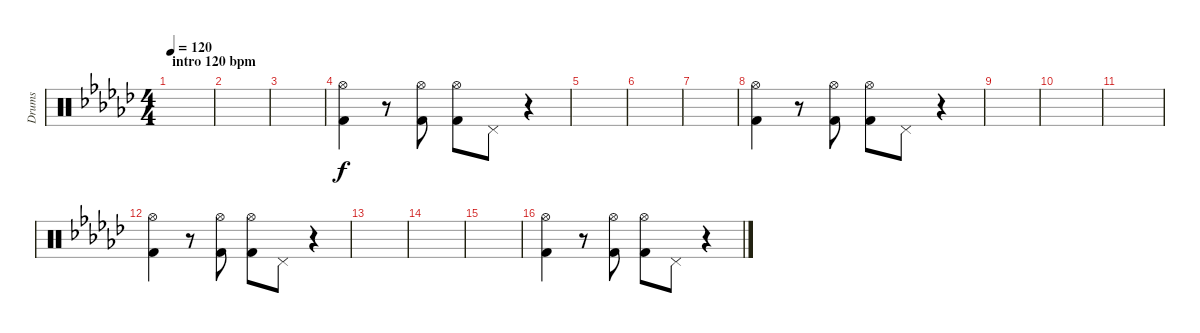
\track ("Drums" "Drums") {instrument percussion}
\staff {score}
\articulation defaults
\ts (4 4)
\section ("" "intro 120 bpm")
\tempo 120
\clef neutral
\ks ebminor
|
|
|
("Hi-Hat (open)" "Kick (hit) 2").4 r.8 ("Hi-Hat (open)" "Kick (hit) 2").8 ("Hi-Hat (open)" "Kick (hit) 2").8 "Pedal Hi-Hat (hit)".8 r.4 |
|
|
|
("Hi-Hat (open)" "Kick (hit) 2").4 r.8 ("Hi-Hat (open)" "Kick (hit) 2").8 ("Hi-Hat (open)" "Kick (hit) 2").8 "Pedal Hi-Hat (hit)".8 r.4 |
|
|
|
("Hi-Hat (open)" "Kick (hit) 2").4 r.8 ("Hi-Hat (open)" "Kick (hit) 2").8 ("Hi-Hat (open)" "Kick (hit) 2").8 "Pedal Hi-Hat (hit)".8 r.4 |
|
|
|
("Hi-Hat (open)" "Kick (hit) 2").4 r.8 ("Hi-Hat (open)" "Kick (hit) 2").8 ("Hi-Hat (open)" "Kick (hit) 2").8 "Pedal Hi-Hat (hit)".8 r.4
